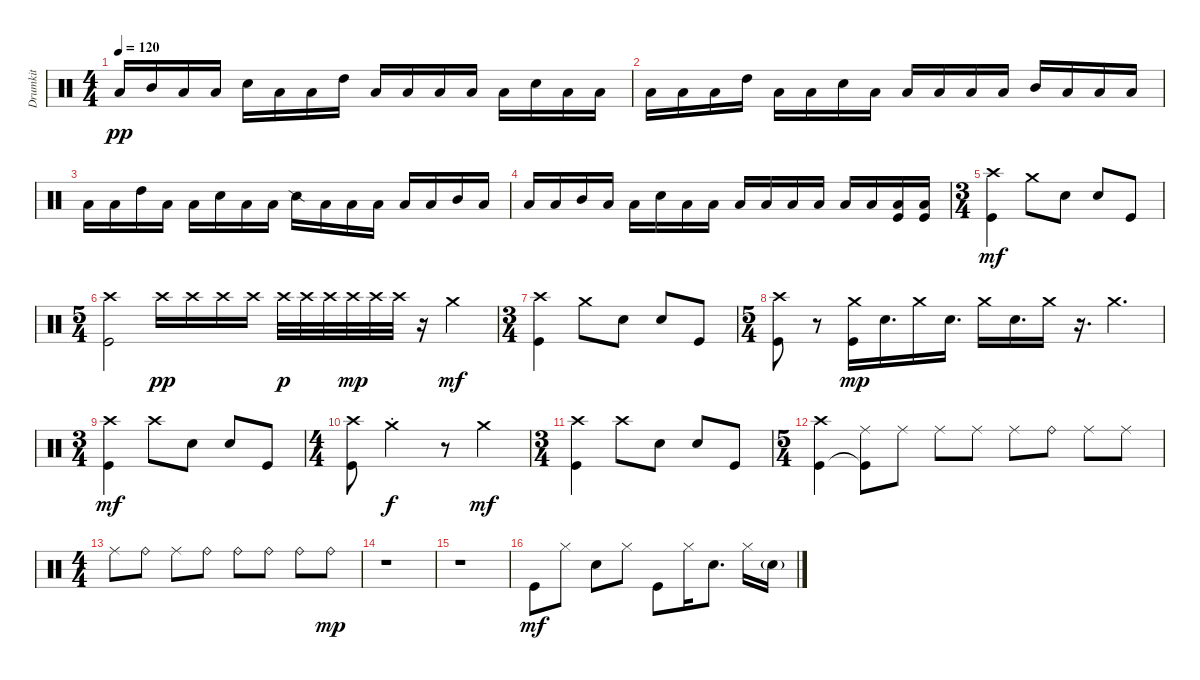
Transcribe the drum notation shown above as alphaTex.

\track ("Drumkit" "Drumkit") {instrument percussion}
\staff {score}
\articulation defaults
\ts (4 4)
\tempo 120
\clef neutral
\ks c "Low Tom (hit)".16{dy pp} "Mid Tom (hit)".16 "Low Tom (hit)".16 "Low Tom (hit)".16 "Snare (hit) 2".16 "Low Tom (hit)".16 "Low Tom (hit)".16 "High Tom (hit)".16 "Low Tom (hit)".16 "Low Tom (hit)".16 "Low Tom (hit)".16 "Low Tom (hit)".16 "Low Tom (hit)".16 "Snare (hit) 2".16 "Low Tom (hit)".16 "Low Tom (hit)".16
|
"Low Tom (hit)".16 "Low Tom (hit)".16 "Low Tom (hit)".16 "High Tom (hit)".16 "Low Tom (hit)".16 "Low Tom (hit)".16 "Snare (hit) 2".16 "Low Tom (hit)".16 "Low Tom (hit)".16 "Low Tom (hit)".16 "Low Tom (hit)".16 "Low Tom (hit)".16 "Mid Tom (hit)".16 "Low Tom (hit)".16 "Low Tom (hit)".16 "Low Tom (hit)".16 |
"Low Tom (hit)".16 "Low Tom (hit)".16 "High Tom (hit)".16 "Low Tom (hit)".16 "Low Tom (hit)".16 "Snare (hit) 2".16 "Low Tom (hit)".16 "Low Tom (hit)".16 "Snare (side stick) 2".16 "Low Tom (hit)".16 "Low Tom (hit)".16 "Low Tom (hit)".16 "Low Tom (hit)".16 "Low Tom (hit)".16 "Mid Tom (hit)".16 "Low Tom (hit)".16 |
"Low Tom (hit)".16 "Low Tom (hit)".16 "Mid Tom (hit)".16 "Low Tom (hit)".16 "Low Tom (hit)".16 "Snare (hit) 2".16 "Low Tom (hit)".16 "Low Tom (hit)".16 "Low Tom (hit)".16 "Low Tom (hit)".16 "Low Tom (hit)".16 "Low Tom (hit)".16 "Low Tom (hit)".16 "Low Tom (hit)".16 ("Low Tom (hit)" "Kick (hit)").16 ("Low Tom (hit)" "Kick (hit)").16 |
\ts (3 4)
("Crash high (hit)" "Kick (hit)").4{dy mf} "Crash medium (hit)".8 "Snare (hit) 2".8 "Snare (hit) 2".8 "Kick (hit)".8 |
\ts (5 4)
("Crash high (hit)" "Kick (hit)").2 "Crash high (hit)".16{dy pp} "Crash high (hit)".16 "Crash high (hit)".16 "Crash high (hit)".16 "Crash high (hit)".32{dy p} "Crash high (hit)".32 "Crash high (hit)".32 "Crash high (hit)".32{dy mp} "Crash high (hit)".32 "Crash high (hit)".32 r.16 "Crash medium (hit)".4{dy mf} |
\ts (3 4)
("Crash high (hit)" "Kick (hit)").4 "Crash medium (hit)".8 "Snare (hit) 2".8 "Snare (hit) 2".8 "Kick (hit)".8 |
\ts (5 4)
("Crash high (hit)" "Kick (hit)").8 r.8 ("Crash medium (hit)" "Kick (hit)").16{dy mp} "Snare (hit) 2".16{d} "Crash medium (hit)".16 "Snare (hit) 2".16{d} "Crash medium (hit)".16 "Snare (hit) 2".16{d} "Crash medium (hit)".16 r.16{d} "Crash medium (hit)".4{d} |
\ts (3 4)
("Crash high (hit)" "Kick (hit)").4{dy mf} "Crash high (hit)".8 "Snare (hit) 2".8 "Snare (hit) 2".8 "Kick (hit)".8 |
\ts (4 4)
("Crash high (hit)" "Kick (hit)").8 "Crash medium (choke)".2{dy f} r.8 "Crash medium (hit)".4{dy mf} |
\ts (3 4)
("Crash high (hit)" "Kick (hit)").4 "Crash high (hit)".8 "Snare (hit) 2".8 "Snare (hit) 2".8 "Kick (hit)".8 |
\ts (5 4)
("Crash high (hit)" "Kick (hit)").4 ("Ride (middle)" "Kick (hit)"{t}).8 "Ride (middle)".8 "Ride (middle)".8 "Ride (middle)".8 "Ride (middle)".8 "Ride (bell)".8 "Ride (middle)".8 "Ride (middle)".8 |
\ts (4 4)
"Ride (middle)".8 "Ride (bell)".8 "Ride (middle)".8 "Ride (bell)".8 "Ride (bell)".8 "Ride (bell)".8 "Ride (bell)".8 "Ride (bell)".8{dy mp} |
r.1 |
r.1 |
"Kick (hit)".8{dy mf} "Hi-Hat (closed)".8 "Snare (hit) 2".8 "Hi-Hat (closed)".8 "Kick (hit)".8 "Hi-Hat (closed)".16 "Snare (hit) 2".8{d} "Hi-Hat (closed)".16 "Snare (hit) 2"{g}.16
